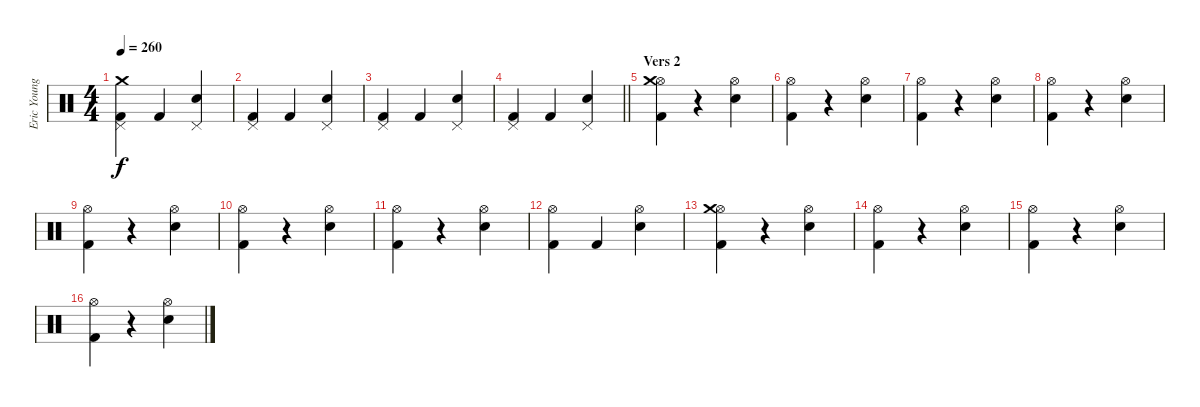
\track ("Eric Young (Drums)" "Eric Young") {instrument percussion}
\staff {score}
\articulation defaults
\ts (4 4)
\tempo 260
\clef neutral
\ks c
("Pedal Hi-Hat (hit)" "Kick (hit) 2" "Crash medium (hit)").4{dy f} "Kick (hit) 2".4 ("Pedal Hi-Hat (hit)" "Snare (hit) 2").4 |
("Pedal Hi-Hat (hit)" "Kick (hit) 2").4 "Kick (hit) 2".4 ("Pedal Hi-Hat (hit)" "Snare (hit) 2").4 |
("Pedal Hi-Hat (hit)" "Kick (hit) 2").4 "Kick (hit) 2".4 ("Pedal Hi-Hat (hit)" "Snare (hit) 2").4 |
\barLineRight lightlight
("Pedal Hi-Hat (hit)" "Kick (hit) 2").4 "Kick (hit) 2".4 ("Pedal Hi-Hat (hit)" "Snare (hit) 2").4 |
\section ("" "Vers 2")
("Hi-Hat (open)" "Kick (hit) 2" "Crash medium (hit)").4 r.4 ("Hi-Hat (open)" "Snare (hit) 2").4 |
("Hi-Hat (open)" "Kick (hit) 2").4 r.4 ("Hi-Hat (open)" "Snare (hit) 2").4 |
("Hi-Hat (open)" "Kick (hit) 2").4 r.4 ("Hi-Hat (open)" "Snare (hit) 2").4 |
("Hi-Hat (open)" "Kick (hit) 2").4 r.4 ("Hi-Hat (open)" "Snare (hit) 2").4 |
("Hi-Hat (open)" "Kick (hit) 2").4 r.4 ("Hi-Hat (open)" "Snare (hit) 2").4 |
("Hi-Hat (open)" "Kick (hit) 2").4 r.4 ("Hi-Hat (open)" "Snare (hit) 2").4 |
("Hi-Hat (open)" "Kick (hit) 2").4 r.4 ("Hi-Hat (open)" "Snare (hit) 2").4 |
("Hi-Hat (open)" "Kick (hit) 2").4 "Kick (hit) 2".4 ("Hi-Hat (open)" "Snare (hit) 2").4 |
("Hi-Hat (open)" "Kick (hit) 2" "Crash medium (hit)").4 r.4 ("Hi-Hat (open)" "Snare (hit) 2").4 |
("Hi-Hat (open)" "Kick (hit) 2").4 r.4 ("Hi-Hat (open)" "Snare (hit) 2").4 |
("Hi-Hat (open)" "Kick (hit) 2").4 r.4 ("Hi-Hat (open)" "Snare (hit) 2").4 |
("Hi-Hat (open)" "Kick (hit) 2").4 r.4 ("Hi-Hat (open)" "Snare (hit) 2").4
